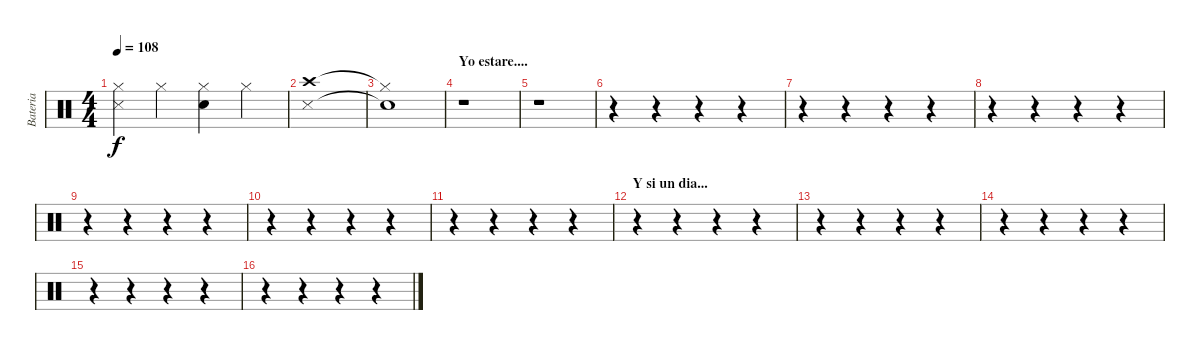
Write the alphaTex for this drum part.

\track ("Bateria" "Bateria") {instrument percussion}
\staff {score}
\articulation defaults
\ts (4 4)
\tempo 108
\clef neutral
\ks c
("Hi-Hat (closed)" "Snare (side stick) 3").4{dy f} "Hi-Hat (closed)".4 ("Snare (hit) 2" "Hi-Hat (closed)").4 "Hi-Hat (closed)".4 |
("Crash high (hit)" "Snare (side stick) 3").1 |
("Hi-Hat (closed)"{t} "Snare (hit)"{t}).1 |
\section ("" "Yo estare....")
r.1 |
r.1 |
r.4 r.4 r.4 r.4 |
r.4 r.4 r.4 r.4 |
r.4 r.4 r.4 r.4 |
r.4 r.4 r.4 r.4 |
r.4 r.4 r.4 r.4 |
r.4 r.4 r.4 r.4 |
\section ("" "Y si un dia...")
r.4 r.4 r.4 r.4 |
r.4 r.4 r.4 r.4 |
r.4 r.4 r.4 r.4 |
r.4 r.4 r.4 r.4 |
r.4 r.4 r.4 r.4
